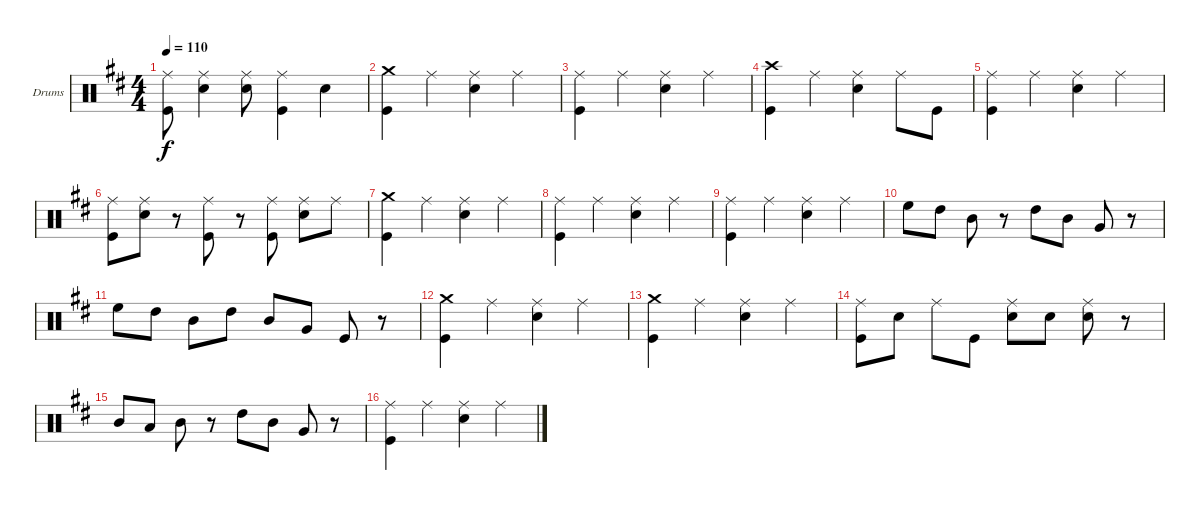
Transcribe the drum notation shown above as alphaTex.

\bracketExtendMode groupsimilarinstruments
\firstSystemTrackNameOrientation horizontal
\otherSystemsTrackNameOrientation horizontal
\track ("Drums" "Drums") {instrument percussion}
\staff {score}
\articulation defaults
\ts (4 4)
\scale
0.420245
\tempo 110
\accidentals auto
\clef neutral
\ottava regular
\simile none
\scale
0.252101
\ks d
("Ride (middle)" "Kick (hit)").8{dy f} ("Ride (middle)" "Snare (hit) 2").4 ("Ride (middle)" "Snare (hit) 2").8 ("Ride (middle)" "Kick (hit)").4 "Snare (hit) 2".4 |
\scale
0.129944
\scale
0.292683 ("Kick (hit)" "Crash medium (hit)").4 "Ride (middle)".4 ("Ride (middle)" "Snare (hit) 2").4 "Ride (middle)".4 |
\scale
0.338983
\scale
0.390244 ("Ride (middle)" "Kick (hit)").4 "Ride (middle)".4 ("Ride (middle)" "Snare (hit) 2").4 "Ride (middle)".4 |
\scale
0.531073
\scale
0.317073 ("Kick (hit)" "Crash high (hit)").4 "Ride (middle)".4 ("Snare (hit) 2" "Ride (middle)").4 "Ride (middle)".8 "Kick (hit)".8 |
\scale
0.343231
\scale
0.3 ("Ride (middle)" "Kick (hit)").4 "Ride (middle)".4 ("Ride (middle)" "Snare (hit) 2").4 "Ride (middle)".4 |
\scale
0.345852
\scale
0.4 ("Ride (middle)" "Kick (hit)").8 ("Snare (hit) 2" "Ride (middle)").8 r.8 ("Ride (middle)" "Kick (hit)").8 r.8 ("Ride (middle)" "Kick (hit)").8 ("Ride (middle)" "Snare (hit) 2").8 "Ride (middle)".8 |
\scale
0.310917
\scale
0.3 ("Kick (hit)" "Crash medium (hit)").4 "Ride (middle)".4 ("Ride (middle)" "Snare (hit) 2").4 "Ride (middle)".4 |
\scale
0.298592
\scale
0.3 ("Ride (middle)" "Kick (hit)").4 "Ride (middle)".4 ("Ride (middle)" "Snare (hit) 2").4 "Ride (middle)".4 |
\scale
0.501408
\scale
0.3 ("Ride (middle)" "Kick (hit)").4 "Ride (middle)".4 ("Ride (middle)" "Snare (hit) 2").4 "Ride (middle)".4 |
\scale
0.2
\scale
0.4 "High Floor Tom (hit)".8 "High Tom (hit)".8 "Mid Tom (hit)".8 r.8 "High Tom (hit)".8 "Mid Tom (hit)".8 "Very Low Tom (hit)".8 r.8 |
\scale
0.444444
\scale
0.4 "High Floor Tom (hit)".8 "High Tom (hit)".8 "Mid Tom (hit)".8 "High Tom (hit)".8 "Mid Tom (hit)".8 "Very Low Tom (hit)".8 "Kick (hit)".8 r.8 |
\scale
0.441224
\scale
0.3 ("Kick (hit)" "Crash medium (hit)").4 "Ride (middle)".4 ("Ride (middle)" "Snare (hit) 2").4 "Ride (middle)".4 |
\scale
0.114332
\scale
0.3 ("Kick (hit)" "Crash medium (hit)").4 "Ride (middle)".4 ("Ride (middle)" "Snare (hit) 2").4 "Ride (middle)".4 |
\scale
0.33209
\scale
0.363636 ("Ride (middle)" "Kick (hit)").8 "Snare (hit) 2".8 "Ride (middle)".8 "Kick (hit)".8 ("Snare (hit) 2" "Ride (middle)").8 "Snare (hit) 2".8 ("Snare (hit) 2" "Ride (middle)").8 r.8 |
\scale
0.33209
\scale
0.363636 "Mid Tom (hit)".8 "Low Tom (hit)".8 "Mid Tom (hit)".8 r.8 "High Tom (hit)".8 "Mid Tom (hit)".8 "Very Low Tom (hit)".8 r.8 |
\scale
0.335821
\scale
0.272727 ("Ride (middle)" "Kick (hit)").4 "Ride (middle)".4 ("Ride (middle)" "Snare (hit) 2").4 "Ride (middle)".4
